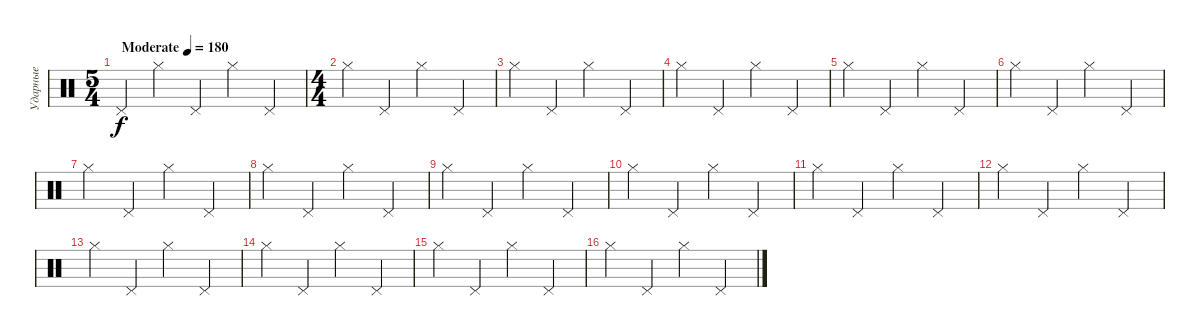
\track ("Ударные" "Ударные") {instrument percussion}
\staff {score}
\articulation defaults
\ts (5 4)
\tempo (180 "Moderate")
\clef neutral
\ks c "Pedal Hi-Hat (hit)".4{dy f} "Hi-Hat (closed)".4 "Pedal Hi-Hat (hit)".4 "Hi-Hat (closed)".4 "Pedal Hi-Hat (hit)".4
|
\ts (4 4)
"Hi-Hat (closed)".4 "Pedal Hi-Hat (hit)".4 "Hi-Hat (closed)".4 "Pedal Hi-Hat (hit)".4 |
"Hi-Hat (closed)".4 "Pedal Hi-Hat (hit)".4 "Hi-Hat (closed)".4 "Pedal Hi-Hat (hit)".4 |
"Hi-Hat (closed)".4 "Pedal Hi-Hat (hit)".4 "Hi-Hat (closed)".4 "Pedal Hi-Hat (hit)".4 |
"Hi-Hat (closed)".4 "Pedal Hi-Hat (hit)".4 "Hi-Hat (closed)".4 "Pedal Hi-Hat (hit)".4 |
"Hi-Hat (closed)".4 "Pedal Hi-Hat (hit)".4 "Hi-Hat (closed)".4 "Pedal Hi-Hat (hit)".4 |
"Hi-Hat (closed)".4 "Pedal Hi-Hat (hit)".4 "Hi-Hat (closed)".4 "Pedal Hi-Hat (hit)".4 |
"Hi-Hat (closed)".4 "Pedal Hi-Hat (hit)".4 "Hi-Hat (closed)".4 "Pedal Hi-Hat (hit)".4 |
"Hi-Hat (closed)".4 "Pedal Hi-Hat (hit)".4 "Hi-Hat (closed)".4 "Pedal Hi-Hat (hit)".4 |
"Hi-Hat (closed)".4 "Pedal Hi-Hat (hit)".4 "Hi-Hat (closed)".4 "Pedal Hi-Hat (hit)".4 |
"Hi-Hat (closed)".4 "Pedal Hi-Hat (hit)".4 "Hi-Hat (closed)".4 "Pedal Hi-Hat (hit)".4 |
"Hi-Hat (closed)".4 "Pedal Hi-Hat (hit)".4 "Hi-Hat (closed)".4 "Pedal Hi-Hat (hit)".4 |
"Hi-Hat (closed)".4 "Pedal Hi-Hat (hit)".4 "Hi-Hat (closed)".4 "Pedal Hi-Hat (hit)".4 |
"Hi-Hat (closed)".4 "Pedal Hi-Hat (hit)".4 "Hi-Hat (closed)".4 "Pedal Hi-Hat (hit)".4 |
"Hi-Hat (closed)".4 "Pedal Hi-Hat (hit)".4 "Hi-Hat (closed)".4 "Pedal Hi-Hat (hit)".4 |
"Hi-Hat (closed)".4 "Pedal Hi-Hat (hit)".4 "Hi-Hat (closed)".4 "Pedal Hi-Hat (hit)".4
